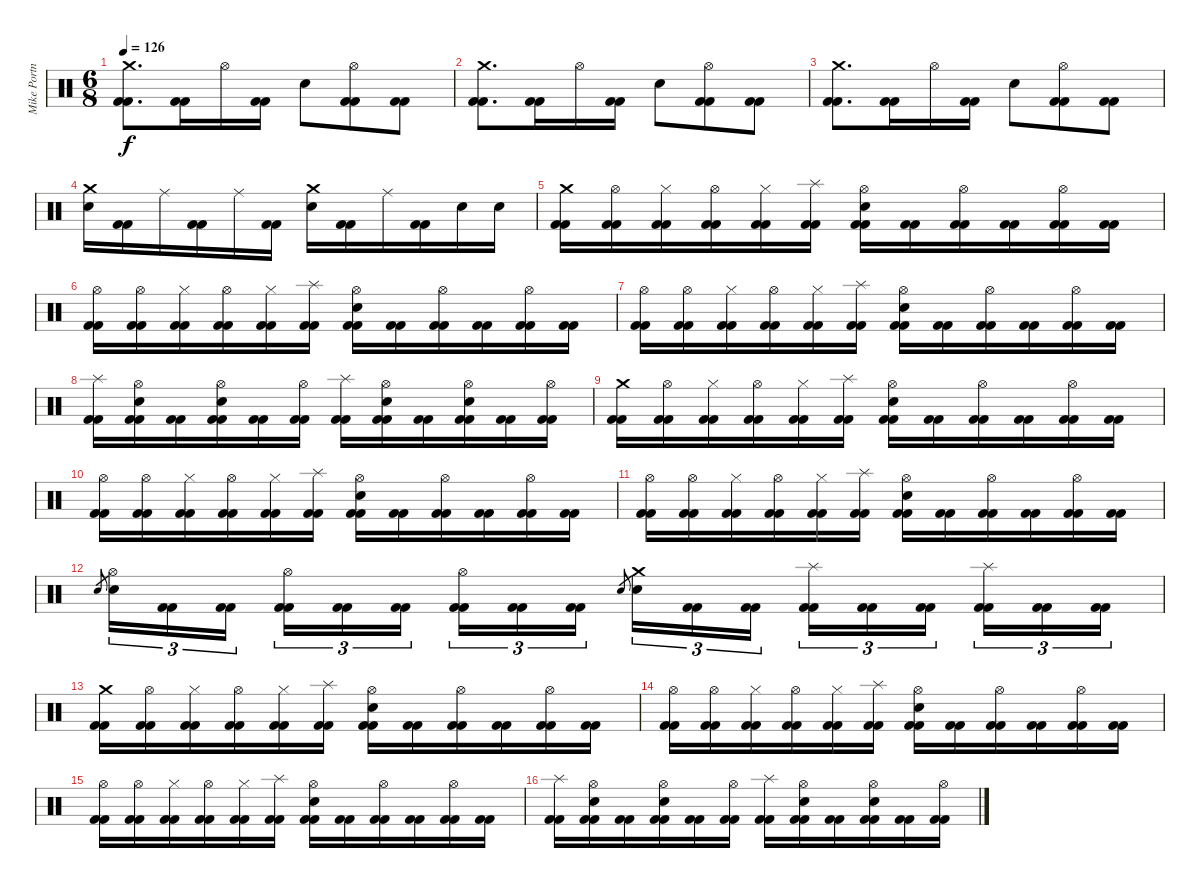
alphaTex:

\track ("Mike Portnoy" "Mike Portn") {instrument percussion}
\staff {score}
\articulation defaults
\ts (6 8)
\tempo 126
\clef neutral
\ks c
("Crash medium (hit)" "Kick (hit) 2" "Kick (hit) 2").8{d dy f} ("Kick (hit) 2" "Kick (hit) 2").16 "Hi-Hat (open)".16 ("Kick (hit) 2" "Kick (hit) 2").16 "Snare (hit) 2".8 ("Hi-Hat (open)" "Kick (hit) 2" "Kick (hit) 2").8 ("Kick (hit) 2" "Kick (hit) 2").8 |
("Crash medium (hit)" "Kick (hit) 2" "Kick (hit) 2").8{d} ("Kick (hit) 2" "Kick (hit) 2").16 "Hi-Hat (open)".16 ("Kick (hit) 2" "Kick (hit) 2").16 "Snare (hit) 2".8 ("Hi-Hat (open)" "Kick (hit) 2" "Kick (hit) 2").8 ("Kick (hit) 2" "Kick (hit) 2").8 |
("Crash medium (hit)" "Kick (hit) 2" "Kick (hit) 2").8{d} ("Kick (hit) 2" "Kick (hit) 2").16 "Hi-Hat (open)".16 ("Kick (hit) 2" "Kick (hit) 2").16 "Snare (hit) 2".8 ("Hi-Hat (open)" "Kick (hit) 2" "Kick (hit) 2").8 ("Kick (hit) 2" "Kick (hit) 2").8 |
("Crash medium (hit)" "Electric Snare (hit)").16 ("Kick (hit) 2" "Kick (hit) 2").16 "Ride (middle)".16 ("Kick (hit) 2" "Kick (hit) 2").16 "Ride (middle)".16 ("Kick (hit) 2" "Kick (hit) 2").16 ("Crash medium (hit)" "Electric Snare (hit)").16 ("Kick (hit) 2" "Kick (hit) 2").16 "Ride (middle)".16 ("Kick (hit) 2" "Kick (hit) 2").16 "Electric Snare (hit)".16 "Electric Snare (hit)".16 |
("Crash medium (hit)" "Kick (hit) 2" "Kick (hit) 2").16 ("Hi-Hat (open)" "Kick (hit) 2" "Kick (hit) 2").16 ("Hi-Hat (closed)" "Kick (hit) 2" "Kick (hit) 2").16 ("Hi-Hat (open)" "Kick (hit) 2" "Kick (hit) 2").16 ("Hi-Hat (closed)" "Kick (hit) 2" "Kick (hit) 2").16 ("Splash (hit)" "Kick (hit) 2" "Kick (hit) 2").16 ("Hi-Hat (open)" "Electric Snare (hit)" "Kick (hit) 2" "Kick (hit) 2").16 ("Kick (hit) 2" "Kick (hit) 2").16 ("Hi-Hat (open)" "Kick (hit) 2" "Kick (hit) 2").16 ("Kick (hit) 2" "Kick (hit) 2").16 ("Hi-Hat (open)" "Kick (hit) 2" "Kick (hit) 2").16 ("Kick (hit) 2" "Kick (hit) 2").16 |
("Hi-Hat (open)" "Kick (hit) 2" "Kick (hit) 2").16 ("Hi-Hat (open)" "Kick (hit) 2" "Kick (hit) 2").16 ("Hi-Hat (closed)" "Kick (hit) 2" "Kick (hit) 2").16 ("Hi-Hat (open)" "Kick (hit) 2" "Kick (hit) 2").16 ("Hi-Hat (closed)" "Kick (hit) 2" "Kick (hit) 2").16 ("Splash (hit)" "Kick (hit) 2" "Kick (hit) 2").16 ("Hi-Hat (open)" "Electric Snare (hit)" "Kick (hit) 2" "Kick (hit) 2").16 ("Kick (hit) 2" "Kick (hit) 2").16 ("Hi-Hat (open)" "Kick (hit) 2" "Kick (hit) 2").16 ("Kick (hit) 2" "Kick (hit) 2").16 ("Hi-Hat (open)" "Kick (hit) 2" "Kick (hit) 2").16 ("Kick (hit) 2" "Kick (hit) 2").16 |
("Hi-Hat (open)" "Kick (hit) 2" "Kick (hit) 2").16 ("Hi-Hat (open)" "Kick (hit) 2" "Kick (hit) 2").16 ("Hi-Hat (closed)" "Kick (hit) 2" "Kick (hit) 2").16 ("Hi-Hat (open)" "Kick (hit) 2" "Kick (hit) 2").16 ("Hi-Hat (closed)" "Kick (hit) 2" "Kick (hit) 2").16 ("Splash (hit)" "Kick (hit) 2" "Kick (hit) 2").16 ("Hi-Hat (open)" "Electric Snare (hit)" "Kick (hit) 2" "Kick (hit) 2").16 ("Kick (hit) 2" "Kick (hit) 2").16 ("Hi-Hat (open)" "Kick (hit) 2" "Kick (hit) 2").16 ("Kick (hit) 2" "Kick (hit) 2").16 ("Hi-Hat (open)" "Kick (hit) 2" "Kick (hit) 2").16 ("Kick (hit) 2" "Kick (hit) 2").16 |
("Splash (hit)" "Kick (hit) 2" "Kick (hit) 2").16 ("Hi-Hat (open)" "Electric Snare (hit)" "Kick (hit) 2" "Kick (hit) 2").16 ("Kick (hit) 2" "Kick (hit) 2").16 ("Hi-Hat (open)" "Electric Snare (hit)" "Kick (hit) 2" "Kick (hit) 2").16 ("Kick (hit) 2" "Kick (hit) 2").16 ("Hi-Hat (open)" "Kick (hit) 2" "Kick (hit) 2").16 ("Splash (hit)" "Kick (hit) 2" "Kick (hit) 2").16 ("Hi-Hat (open)" "Electric Snare (hit)" "Kick (hit) 2" "Kick (hit) 2").16 ("Kick (hit) 2" "Kick (hit) 2").16 ("Hi-Hat (open)" "Electric Snare (hit)" "Kick (hit) 2" "Kick (hit) 2").16 ("Kick (hit) 2" "Kick (hit) 2").16 ("Hi-Hat (open)" "Kick (hit) 2" "Kick (hit) 2").16 |
("Crash medium (hit)" "Kick (hit) 2" "Kick (hit) 2").16 ("Hi-Hat (open)" "Kick (hit) 2" "Kick (hit) 2").16 ("Hi-Hat (closed)" "Kick (hit) 2" "Kick (hit) 2").16 ("Hi-Hat (open)" "Kick (hit) 2" "Kick (hit) 2").16 ("Hi-Hat (closed)" "Kick (hit) 2" "Kick (hit) 2").16 ("Splash (hit)" "Kick (hit) 2" "Kick (hit) 2").16 ("Hi-Hat (open)" "Electric Snare (hit)" "Kick (hit) 2" "Kick (hit) 2").16 ("Kick (hit) 2" "Kick (hit) 2").16 ("Hi-Hat (open)" "Kick (hit) 2" "Kick (hit) 2").16 ("Kick (hit) 2" "Kick (hit) 2").16 ("Hi-Hat (open)" "Kick (hit) 2" "Kick (hit) 2").16 ("Kick (hit) 2" "Kick (hit) 2").16 |
("Hi-Hat (open)" "Kick (hit) 2" "Kick (hit) 2").16 ("Hi-Hat (open)" "Kick (hit) 2" "Kick (hit) 2").16 ("Hi-Hat (closed)" "Kick (hit) 2" "Kick (hit) 2").16 ("Hi-Hat (open)" "Kick (hit) 2" "Kick (hit) 2").16 ("Hi-Hat (closed)" "Kick (hit) 2" "Kick (hit) 2").16 ("Splash (hit)" "Kick (hit) 2" "Kick (hit) 2").16 ("Hi-Hat (open)" "Electric Snare (hit)" "Kick (hit) 2" "Kick (hit) 2").16 ("Kick (hit) 2" "Kick (hit) 2").16 ("Hi-Hat (open)" "Kick (hit) 2" "Kick (hit) 2").16 ("Kick (hit) 2" "Kick (hit) 2").16 ("Hi-Hat (open)" "Kick (hit) 2" "Kick (hit) 2").16 ("Kick (hit) 2" "Kick (hit) 2").16 |
("Hi-Hat (open)" "Kick (hit) 2" "Kick (hit) 2").16 ("Hi-Hat (open)" "Kick (hit) 2" "Kick (hit) 2").16 ("Hi-Hat (closed)" "Kick (hit) 2" "Kick (hit) 2").16 ("Hi-Hat (open)" "Kick (hit) 2" "Kick (hit) 2").16 ("Hi-Hat (closed)" "Kick (hit) 2" "Kick (hit) 2").16 ("Splash (hit)" "Kick (hit) 2" "Kick (hit) 2").16 ("Hi-Hat (open)" "Electric Snare (hit)" "Kick (hit) 2" "Kick (hit) 2").16 ("Kick (hit) 2" "Kick (hit) 2").16 ("Hi-Hat (open)" "Kick (hit) 2" "Kick (hit) 2").16 ("Kick (hit) 2" "Kick (hit) 2").16 ("Hi-Hat (open)" "Kick (hit) 2" "Kick (hit) 2").16 ("Kick (hit) 2" "Kick (hit) 2").16 |
"Electric Snare (hit)".8{gr} ("Hi-Hat (open)" "Electric Snare (hit)").16{tu (3 2)} ("Kick (hit) 2" "Kick (hit) 2").16{tu (3 2)} ("Kick (hit) 2" "Kick (hit) 2").16{tu (3 2) beam splitsecondary} ("Hi-Hat (open)" "Kick (hit) 2" "Kick (hit) 2").16{tu (3 2)} ("Kick (hit) 2" "Kick (hit) 2").16{tu (3 2)} ("Kick (hit) 2" "Kick (hit) 2").16{tu (3 2) beam splitsecondary} ("Hi-Hat (open)" "Kick (hit) 2" "Kick (hit) 2").16{tu (3 2)} ("Kick (hit) 2" "Kick (hit) 2").16{tu (3 2)} ("Kick (hit) 2" "Kick (hit) 2").16{tu (3 2)} "Electric Snare (hit)".8{gr} ("Crash medium (hit)" "Electric Snare (hit)").16{tu (3 2)} ("Kick (hit) 2" "Kick (hit) 2").16{tu (3 2)} ("Kick (hit) 2" "Kick (hit) 2").16{tu (3 2) beam splitsecondary} ("Splash (hit)" "Kick (hit) 2" "Kick (hit) 2").16{tu (3 2)} ("Kick (hit) 2" "Kick (hit) 2").16{tu (3 2)} ("Kick (hit) 2" "Kick (hit) 2").16{tu (3 2) beam splitsecondary} ("Splash (hit)" "Kick (hit) 2" "Kick (hit) 2").16{tu (3 2)} ("Kick (hit) 2" "Kick (hit) 2").16{tu (3 2)} ("Kick (hit) 2" "Kick (hit) 2").16{tu (3 2)} |
("Crash medium (hit)" "Kick (hit) 2" "Kick (hit) 2").16 ("Hi-Hat (open)" "Kick (hit) 2" "Kick (hit) 2").16 ("Hi-Hat (closed)" "Kick (hit) 2" "Kick (hit) 2").16 ("Hi-Hat (open)" "Kick (hit) 2" "Kick (hit) 2").16 ("Hi-Hat (closed)" "Kick (hit) 2" "Kick (hit) 2").16 ("Splash (hit)" "Kick (hit) 2" "Kick (hit) 2").16 ("Hi-Hat (open)" "Electric Snare (hit)" "Kick (hit) 2" "Kick (hit) 2").16 ("Kick (hit) 2" "Kick (hit) 2").16 ("Hi-Hat (open)" "Kick (hit) 2" "Kick (hit) 2").16 ("Kick (hit) 2" "Kick (hit) 2").16 ("Hi-Hat (open)" "Kick (hit) 2" "Kick (hit) 2").16 ("Kick (hit) 2" "Kick (hit) 2").16 |
("Hi-Hat (open)" "Kick (hit) 2" "Kick (hit) 2").16 ("Hi-Hat (open)" "Kick (hit) 2" "Kick (hit) 2").16 ("Hi-Hat (closed)" "Kick (hit) 2" "Kick (hit) 2").16 ("Hi-Hat (open)" "Kick (hit) 2" "Kick (hit) 2").16 ("Hi-Hat (closed)" "Kick (hit) 2" "Kick (hit) 2").16 ("Splash (hit)" "Kick (hit) 2" "Kick (hit) 2").16 ("Hi-Hat (open)" "Electric Snare (hit)" "Kick (hit) 2" "Kick (hit) 2").16 ("Kick (hit) 2" "Kick (hit) 2").16 ("Hi-Hat (open)" "Kick (hit) 2" "Kick (hit) 2").16 ("Kick (hit) 2" "Kick (hit) 2").16 ("Hi-Hat (open)" "Kick (hit) 2" "Kick (hit) 2").16 ("Kick (hit) 2" "Kick (hit) 2").16 |
("Hi-Hat (open)" "Kick (hit) 2" "Kick (hit) 2").16 ("Hi-Hat (open)" "Kick (hit) 2" "Kick (hit) 2").16 ("Hi-Hat (closed)" "Kick (hit) 2" "Kick (hit) 2").16 ("Hi-Hat (open)" "Kick (hit) 2" "Kick (hit) 2").16 ("Hi-Hat (closed)" "Kick (hit) 2" "Kick (hit) 2").16 ("Splash (hit)" "Kick (hit) 2" "Kick (hit) 2").16 ("Hi-Hat (open)" "Electric Snare (hit)" "Kick (hit) 2" "Kick (hit) 2").16 ("Kick (hit) 2" "Kick (hit) 2").16 ("Hi-Hat (open)" "Kick (hit) 2" "Kick (hit) 2").16 ("Kick (hit) 2" "Kick (hit) 2").16 ("Hi-Hat (open)" "Kick (hit) 2" "Kick (hit) 2").16 ("Kick (hit) 2" "Kick (hit) 2").16 |
("Splash (hit)" "Kick (hit) 2" "Kick (hit) 2").16 ("Hi-Hat (open)" "Electric Snare (hit)" "Kick (hit) 2" "Kick (hit) 2").16 ("Kick (hit) 2" "Kick (hit) 2").16 ("Hi-Hat (open)" "Electric Snare (hit)" "Kick (hit) 2" "Kick (hit) 2").16 ("Kick (hit) 2" "Kick (hit) 2").16 ("Hi-Hat (open)" "Kick (hit) 2" "Kick (hit) 2").16 ("Splash (hit)" "Kick (hit) 2" "Kick (hit) 2").16 ("Hi-Hat (open)" "Electric Snare (hit)" "Kick (hit) 2" "Kick (hit) 2").16 ("Kick (hit) 2" "Kick (hit) 2").16 ("Hi-Hat (open)" "Electric Snare (hit)" "Kick (hit) 2" "Kick (hit) 2").16 ("Kick (hit) 2" "Kick (hit) 2").16 ("Hi-Hat (open)" "Kick (hit) 2" "Kick (hit) 2").16
